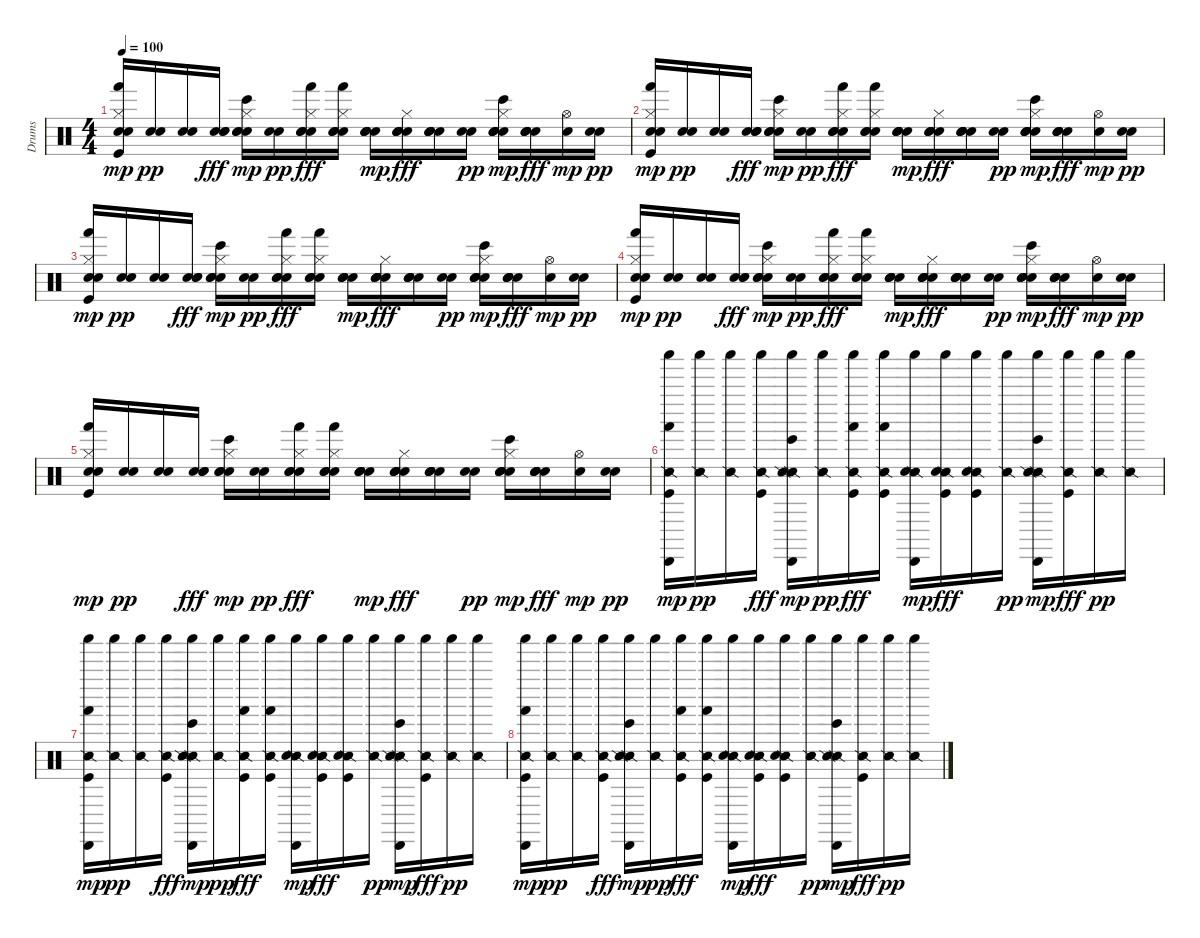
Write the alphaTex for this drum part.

\track ("Drums" "Drums") {instrument percussion}
\staff {score}
\articulation defaults
\ts (4 4)
\tempo 100
\clef neutral
\ks c
("Snare (hit)" "Hi-Hat (closed)" "Hand (hit)" "Kick (hit)" "Snare (hit)").16{dy mp} ("Snare (hit)" "Snare (hit)").16{dy pp} ("Snare (hit)" "Snare (hit)").16 ("Snare (hit)" "Snare (hit)" "Snare (hit)").16{dy fff} ("Snare (hit)" "Snare (hit)" "Bongo High (hit)" "Hi-Hat (closed)" "Snare (hit)").16{dy mp} ("Snare (hit)" "Snare (hit)").16{dy pp} ("Snare (hit)" "Snare (hit)" "Hand (hit)" "Hi-Hat (closed)" "Snare (hit)").16{dy fff} ("Snare (hit)" "Snare (hit)" "Hand (hit)" "Hi-Hat (closed)" "Snare (hit)").16 ("Snare (hit)" "Snare (hit)" "Snare (hit)" "Snare (hit)").16{dy mp} ("Snare (hit)" "Snare (hit)" "Snare (hit)" "Hi-Hat (closed)" "Snare (hit)").16{dy fff} ("Snare (hit)" "Snare (hit)" "Snare (hit)" "Snare (hit)").16 ("Snare (hit)" "Snare (hit)").16{dy pp} ("Snare (hit)" "Snare (hit)" "Bongo High (hit)" "Hi-Hat (closed)" "Snare (hit)" "Snare (hit)").16{dy mp} ("Snare (hit)" "Snare (hit)" "Snare (hit)" "Snare (hit)").16{dy fff} ("Snare (hit)" "Hi-Hat (open)").16{dy mp} ("Snare (hit)" "Snare (hit)").16{dy pp} |
("Snare (hit)" "Hi-Hat (closed)" "Hand (hit)" "Kick (hit)" "Snare (hit)").16{dy mp} ("Snare (hit)" "Snare (hit)").16{dy pp} ("Snare (hit)" "Snare (hit)").16 ("Snare (hit)" "Snare (hit)" "Snare (hit)").16{dy fff} ("Snare (hit)" "Snare (hit)" "Bongo High (hit)" "Hi-Hat (closed)" "Snare (hit)").16{dy mp} ("Snare (hit)" "Snare (hit)").16{dy pp} ("Snare (hit)" "Snare (hit)" "Hand (hit)" "Hi-Hat (closed)" "Snare (hit)").16{dy fff} ("Snare (hit)" "Snare (hit)" "Hand (hit)" "Hi-Hat (closed)" "Snare (hit)").16 ("Snare (hit)" "Snare (hit)" "Snare (hit)" "Snare (hit)").16{dy mp} ("Snare (hit)" "Snare (hit)" "Snare (hit)" "Hi-Hat (closed)" "Snare (hit)").16{dy fff} ("Snare (hit)" "Snare (hit)" "Snare (hit)" "Snare (hit)").16 ("Snare (hit)" "Snare (hit)").16{dy pp} ("Snare (hit)" "Snare (hit)" "Bongo High (hit)" "Hi-Hat (closed)" "Snare (hit)" "Snare (hit)").16{dy mp} ("Snare (hit)" "Snare (hit)" "Snare (hit)" "Snare (hit)").16{dy fff} ("Snare (hit)" "Hi-Hat (open)").16{dy mp} ("Snare (hit)" "Snare (hit)").16{dy pp} |
("Snare (hit)" "Hi-Hat (closed)" "Hand (hit)" "Kick (hit)" "Snare (hit)").16{dy mp} ("Snare (hit)" "Snare (hit)").16{dy pp} ("Snare (hit)" "Snare (hit)").16 ("Snare (hit)" "Snare (hit)" "Snare (hit)").16{dy fff} ("Snare (hit)" "Snare (hit)" "Bongo High (hit)" "Hi-Hat (closed)" "Snare (hit)").16{dy mp} ("Snare (hit)" "Snare (hit)").16{dy pp} ("Snare (hit)" "Snare (hit)" "Hand (hit)" "Hi-Hat (closed)" "Snare (hit)").16{dy fff} ("Snare (hit)" "Snare (hit)" "Hand (hit)" "Hi-Hat (closed)" "Snare (hit)").16 ("Snare (hit)" "Snare (hit)" "Snare (hit)" "Snare (hit)").16{dy mp} ("Snare (hit)" "Snare (hit)" "Snare (hit)" "Hi-Hat (closed)" "Snare (hit)").16{dy fff} ("Snare (hit)" "Snare (hit)" "Snare (hit)" "Snare (hit)").16 ("Snare (hit)" "Snare (hit)").16{dy pp} ("Snare (hit)" "Snare (hit)" "Bongo High (hit)" "Hi-Hat (closed)" "Snare (hit)" "Snare (hit)").16{dy mp} ("Snare (hit)" "Snare (hit)" "Snare (hit)" "Snare (hit)").16{dy fff} ("Snare (hit)" "Hi-Hat (open)").16{dy mp} ("Snare (hit)" "Snare (hit)").16{dy pp} |
("Snare (hit)" "Hi-Hat (closed)" "Hand (hit)" "Kick (hit)" "Snare (hit)").16{dy mp} ("Snare (hit)" "Snare (hit)").16{dy pp} ("Snare (hit)" "Snare (hit)").16 ("Snare (hit)" "Snare (hit)" "Snare (hit)").16{dy fff} ("Snare (hit)" "Snare (hit)" "Bongo High (hit)" "Hi-Hat (closed)" "Snare (hit)").16{dy mp} ("Snare (hit)" "Snare (hit)").16{dy pp} ("Snare (hit)" "Snare (hit)" "Hand (hit)" "Hi-Hat (closed)" "Snare (hit)").16{dy fff} ("Snare (hit)" "Snare (hit)" "Hand (hit)" "Hi-Hat (closed)" "Snare (hit)").16 ("Snare (hit)" "Snare (hit)" "Snare (hit)" "Snare (hit)").16{dy mp} ("Snare (hit)" "Snare (hit)" "Snare (hit)" "Hi-Hat (closed)" "Snare (hit)").16{dy fff} ("Snare (hit)" "Snare (hit)" "Snare (hit)" "Snare (hit)").16 ("Snare (hit)" "Snare (hit)").16{dy pp} ("Snare (hit)" "Snare (hit)" "Bongo High (hit)" "Hi-Hat (closed)" "Snare (hit)" "Snare (hit)").16{dy mp} ("Snare (hit)" "Snare (hit)" "Snare (hit)" "Snare (hit)").16{dy fff} ("Snare (hit)" "Hi-Hat (open)").16{dy mp} ("Snare (hit)" "Snare (hit)").16{dy pp} |
("Snare (hit)" "Hi-Hat (closed)" "Hand (hit)" "Kick (hit)" "Snare (hit)").16{dy mp} ("Snare (hit)" "Snare (hit)").16{dy pp} ("Snare (hit)" "Snare (hit)").16 ("Snare (hit)" "Snare (hit)" "Snare (hit)").16{dy fff} ("Snare (hit)" "Snare (hit)" "Bongo High (hit)" "Hi-Hat (closed)" "Snare (hit)").16{dy mp} ("Snare (hit)" "Snare (hit)").16{dy pp} ("Snare (hit)" "Snare (hit)" "Hand (hit)" "Hi-Hat (closed)" "Snare (hit)").16{dy fff} ("Snare (hit)" "Snare (hit)" "Hand (hit)" "Hi-Hat (closed)" "Snare (hit)").16 ("Snare (hit)" "Snare (hit)" "Snare (hit)" "Snare (hit)").16{dy mp} ("Snare (hit)" "Snare (hit)" "Snare (hit)" "Hi-Hat (closed)" "Snare (hit)").16{dy fff} ("Snare (hit)" "Snare (hit)" "Snare (hit)" "Snare (hit)").16 ("Snare (hit)" "Snare (hit)").16{dy pp} ("Snare (hit)" "Snare (hit)" "Bongo High (hit)" "Hi-Hat (closed)" "Snare (hit)" "Snare (hit)").16{dy mp} ("Snare (hit)" "Snare (hit)" "Snare (hit)" "Snare (hit)").16{dy fff} ("Snare (hit)" "Hi-Hat (open)").16{dy mp} ("Snare (hit)" "Snare (hit)").16{dy pp} |
("Shaker (hit)" "Snare (side stick) 2" "Hand (hit)" "Kick (hit)" "Cabasa (hit)").16{dy mp} ("Shaker (hit)" "Snare (side stick) 2").16{dy pp} ("Shaker (hit)" "Snare (side stick) 2").16 ("Shaker (hit)" "Snare (side stick) 2" "Kick (hit)").16{dy fff} ("Shaker (hit)" "Snare (side stick) 2" "Bongo High (hit)" "Snare (side stick) 2" "Cabasa (hit)").16{dy mp} ("Shaker (hit)" "Snare (side stick) 2").16{dy pp} ("Shaker (hit)" "Snare (side stick) 2" "Hand (hit)" "Kick (hit)").16{dy fff} ("Shaker (hit)" "Snare (side stick) 2" "Hand (hit)" "Kick (hit)").16 ("Shaker (hit)" "Snare (side stick) 2" "Snare (hit)" "Cabasa (hit)").16{dy mp} ("Shaker (hit)" "Snare (side stick) 2" "Snare (hit)" "Kick (hit)").16{dy fff} ("Shaker (hit)" "Snare (side stick) 2" "Snare (hit)" "Kick (hit)").16 ("Shaker (hit)" "Snare (side stick) 2").16{dy pp} ("Shaker (hit)" "Snare (side stick) 2" "Bongo High (hit)" "Snare (side stick) 2" "Cabasa (hit)").16{dy mp} ("Shaker (hit)" "Snare (side stick) 2" "Kick (hit)").16{dy fff} ("Shaker (hit)" "Snare (side stick) 2").16{dy pp} ("Shaker (hit)" "Snare (side stick) 2").16 |
("Shaker (hit)" "Snare (side stick) 2" "Hand (hit)" "Kick (hit)" "Cabasa (hit)").16{dy mp} ("Shaker (hit)" "Snare (side stick) 2").16{dy pp} ("Shaker (hit)" "Snare (side stick) 2").16 ("Shaker (hit)" "Snare (side stick) 2" "Kick (hit)").16{dy fff} ("Shaker (hit)" "Snare (side stick) 2" "Bongo High (hit)" "Snare (side stick) 2" "Cabasa (hit)").16{dy mp} ("Shaker (hit)" "Snare (side stick) 2").16{dy pp} ("Shaker (hit)" "Snare (side stick) 2" "Hand (hit)" "Kick (hit)").16{dy fff} ("Shaker (hit)" "Snare (side stick) 2" "Hand (hit)" "Kick (hit)").16 ("Shaker (hit)" "Snare (side stick) 2" "Snare (hit)" "Cabasa (hit)").16{dy mp} ("Shaker (hit)" "Snare (side stick) 2" "Snare (hit)" "Kick (hit)").16{dy fff} ("Shaker (hit)" "Snare (side stick) 2" "Snare (hit)" "Kick (hit)").16 ("Shaker (hit)" "Snare (side stick) 2").16{dy pp} ("Shaker (hit)" "Snare (side stick) 2" "Bongo High (hit)" "Snare (side stick) 2" "Cabasa (hit)").16{dy mp} ("Shaker (hit)" "Snare (side stick) 2" "Kick (hit)").16{dy fff} ("Shaker (hit)" "Snare (side stick) 2").16{dy pp} ("Shaker (hit)" "Snare (side stick) 2").16 |
("Shaker (hit)" "Snare (side stick) 2" "Hand (hit)" "Kick (hit)" "Cabasa (hit)").16{dy mp} ("Shaker (hit)" "Snare (side stick) 2").16{dy pp} ("Shaker (hit)" "Snare (side stick) 2").16 ("Shaker (hit)" "Snare (side stick) 2" "Kick (hit)").16{dy fff} ("Shaker (hit)" "Snare (side stick) 2" "Bongo High (hit)" "Snare (side stick) 2" "Cabasa (hit)").16{dy mp} ("Shaker (hit)" "Snare (side stick) 2").16{dy pp} ("Shaker (hit)" "Snare (side stick) 2" "Hand (hit)" "Kick (hit)").16{dy fff} ("Shaker (hit)" "Snare (side stick) 2" "Hand (hit)" "Kick (hit)").16 ("Shaker (hit)" "Snare (side stick) 2" "Snare (hit)" "Cabasa (hit)").16{dy mp} ("Shaker (hit)" "Snare (side stick) 2" "Snare (hit)" "Kick (hit)").16{dy fff} ("Shaker (hit)" "Snare (side stick) 2" "Snare (hit)" "Kick (hit)").16 ("Shaker (hit)" "Snare (side stick) 2").16{dy pp} ("Shaker (hit)" "Snare (side stick) 2" "Bongo High (hit)" "Snare (side stick) 2" "Cabasa (hit)").16{dy mp} ("Shaker (hit)" "Snare (side stick) 2" "Kick (hit)").16{dy fff} ("Shaker (hit)" "Snare (side stick) 2").16{dy pp} ("Shaker (hit)" "Snare (side stick) 2").16
